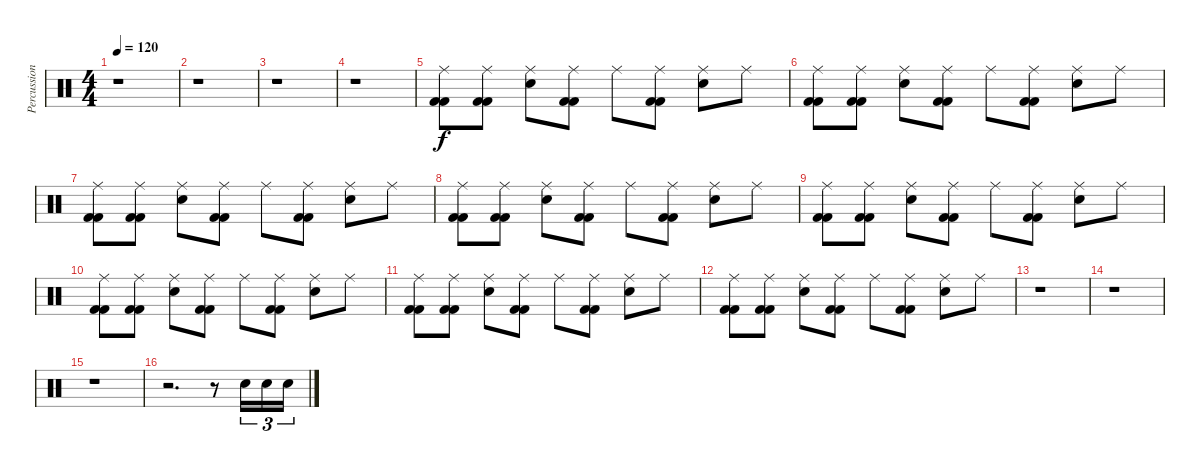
\track ("Percussion" "Percussion") {instrument percussion}
\staff {score}
\articulation defaults
\ts (4 4)
\tempo 120
\clef neutral
\ks c
r.1{dy f} |
r.1 |
r.1 |
r.1 |
("Ride (middle)" "Kick (hit) 2" "Kick (hit) 2").8 ("Ride (middle)" "Kick (hit) 2" "Kick (hit) 2").8 ("Ride (middle)" "Snare (hit) 2").8 ("Ride (middle)" "Kick (hit) 2" "Kick (hit) 2").8 "Ride (middle)".8 ("Ride (middle)" "Kick (hit) 2" "Kick (hit) 2").8 ("Ride (middle)" "Snare (hit) 2").8 "Ride (middle)".8 |
("Ride (middle)" "Kick (hit) 2" "Kick (hit) 2").8 ("Ride (middle)" "Kick (hit) 2" "Kick (hit) 2").8 ("Ride (middle)" "Snare (hit) 2").8 ("Ride (middle)" "Kick (hit) 2" "Kick (hit) 2").8 "Ride (middle)".8 ("Ride (middle)" "Kick (hit) 2" "Kick (hit) 2").8 ("Ride (middle)" "Snare (hit) 2").8 "Ride (middle)".8 |
("Ride (middle)" "Kick (hit) 2" "Kick (hit) 2").8 ("Ride (middle)" "Kick (hit) 2" "Kick (hit) 2").8 ("Ride (middle)" "Snare (hit) 2").8 ("Ride (middle)" "Kick (hit) 2" "Kick (hit) 2").8 "Ride (middle)".8 ("Ride (middle)" "Kick (hit) 2" "Kick (hit) 2").8 ("Ride (middle)" "Snare (hit) 2").8 "Ride (middle)".8 |
("Ride (middle)" "Kick (hit) 2" "Kick (hit) 2").8 ("Ride (middle)" "Kick (hit) 2" "Kick (hit) 2").8 ("Ride (middle)" "Snare (hit) 2").8 ("Ride (middle)" "Kick (hit) 2" "Kick (hit) 2").8 "Ride (middle)".8 ("Ride (middle)" "Kick (hit) 2" "Kick (hit) 2").8 ("Ride (middle)" "Snare (hit) 2").8 "Ride (middle)".8 |
("Ride (middle)" "Kick (hit) 2" "Kick (hit) 2").8 ("Ride (middle)" "Kick (hit) 2" "Kick (hit) 2").8 ("Ride (middle)" "Snare (hit) 2").8 ("Ride (middle)" "Kick (hit) 2" "Kick (hit) 2").8 "Ride (middle)".8 ("Ride (middle)" "Kick (hit) 2" "Kick (hit) 2").8 ("Ride (middle)" "Snare (hit) 2").8 "Ride (middle)".8 |
("Ride (middle)" "Kick (hit) 2" "Kick (hit) 2").8 ("Ride (middle)" "Kick (hit) 2" "Kick (hit) 2").8 ("Ride (middle)" "Snare (hit) 2").8 ("Ride (middle)" "Kick (hit) 2" "Kick (hit) 2").8 "Ride (middle)".8 ("Ride (middle)" "Kick (hit) 2" "Kick (hit) 2").8 ("Ride (middle)" "Snare (hit) 2").8 "Ride (middle)".8 |
("Ride (middle)" "Kick (hit) 2" "Kick (hit) 2").8 ("Ride (middle)" "Kick (hit) 2" "Kick (hit) 2").8 ("Ride (middle)" "Snare (hit) 2").8 ("Ride (middle)" "Kick (hit) 2" "Kick (hit) 2").8 "Ride (middle)".8 ("Ride (middle)" "Kick (hit) 2" "Kick (hit) 2").8 ("Ride (middle)" "Snare (hit) 2").8 "Ride (middle)".8 |
("Ride (middle)" "Kick (hit) 2" "Kick (hit) 2").8 ("Ride (middle)" "Kick (hit) 2" "Kick (hit) 2").8 ("Ride (middle)" "Snare (hit) 2").8 ("Ride (middle)" "Kick (hit) 2" "Kick (hit) 2").8 "Ride (middle)".8 ("Ride (middle)" "Kick (hit) 2" "Kick (hit) 2").8 ("Ride (middle)" "Snare (hit) 2").8 "Ride (middle)".8 |
r.1 |
r.1 |
r.1 |
r.2{d} r.8 "Snare (hit) 2".16{tu (3 2)} "Snare (hit) 2".16{tu (3 2)} "Snare (hit) 2".16{tu (3 2)}
